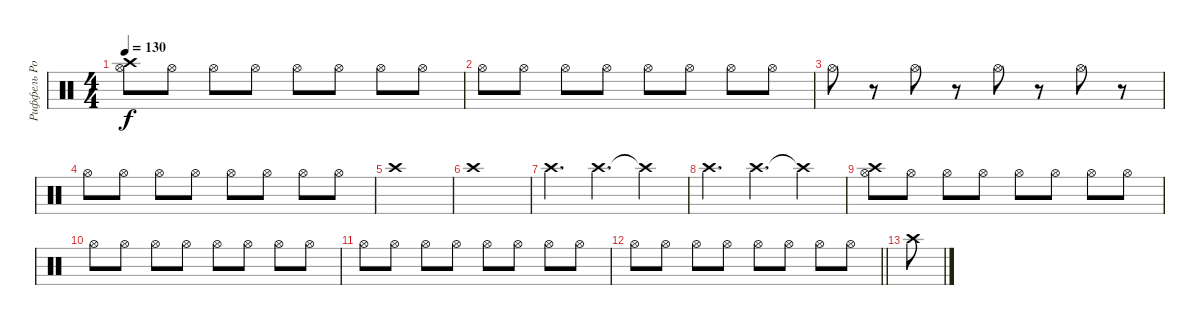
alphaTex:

\track ("Риффель Роман (хэты)" "Риффель Ро") {instrument percussion}
\staff {score}
\articulation defaults
\ts (4 4)
\tempo 130
\clef neutral
\ks c
("Crash high (hit)" "Hi-Hat (open)").8{dy f} "Hi-Hat (open)".8 "Hi-Hat (open)".8 "Hi-Hat (open)".8 "Hi-Hat (open)".8 "Hi-Hat (open)".8 "Hi-Hat (open)".8 "Hi-Hat (open)".8 |
"Hi-Hat (open)".8 "Hi-Hat (open)".8 "Hi-Hat (open)".8 "Hi-Hat (open)".8 "Hi-Hat (open)".8 "Hi-Hat (open)".8 "Hi-Hat (open)".8 "Hi-Hat (open)".8 |
"Hi-Hat (open)".8 r.8 "Hi-Hat (open)".8 r.8 "Hi-Hat (open)".8 r.8 "Hi-Hat (open)".8 r.8 |
"Hi-Hat (open)".8 "Hi-Hat (open)".8 "Hi-Hat (open)".8 "Hi-Hat (open)".8 "Hi-Hat (open)".8 "Hi-Hat (open)".8 "Hi-Hat (open)".8 "Hi-Hat (open)".8 |
"Crash high (hit)".1 |
"Crash high (hit)".1 |
"Crash high (hit)".4{d} "Crash high (hit)".4{d} "Crash high (hit)"{t}.4 |
"Crash high (hit)".4{d} "Crash high (hit)".4{d} "Crash high (hit)"{t}.4 |
("Crash high (hit)" "Hi-Hat (open)").8 "Hi-Hat (open)".8 "Hi-Hat (open)".8 "Hi-Hat (open)".8 "Hi-Hat (open)".8 "Hi-Hat (open)".8 "Hi-Hat (open)".8 "Hi-Hat (open)".8 |
"Hi-Hat (open)".8 "Hi-Hat (open)".8 "Hi-Hat (open)".8 "Hi-Hat (open)".8 "Hi-Hat (open)".8 "Hi-Hat (open)".8 "Hi-Hat (open)".8 "Hi-Hat (open)".8 |
"Hi-Hat (open)".8 "Hi-Hat (open)".8 "Hi-Hat (open)".8 "Hi-Hat (open)".8 "Hi-Hat (open)".8 "Hi-Hat (open)".8 "Hi-Hat (open)".8 "Hi-Hat (open)".8 |
\barLineRight lightlight "Hi-Hat (open)".8 "Hi-Hat (open)".8 "Hi-Hat (open)".8 "Hi-Hat (open)".8 "Hi-Hat (open)".8 "Hi-Hat (open)".8 "Hi-Hat (open)".8 "Hi-Hat (open)".8
|
"Crash high (hit)".8
